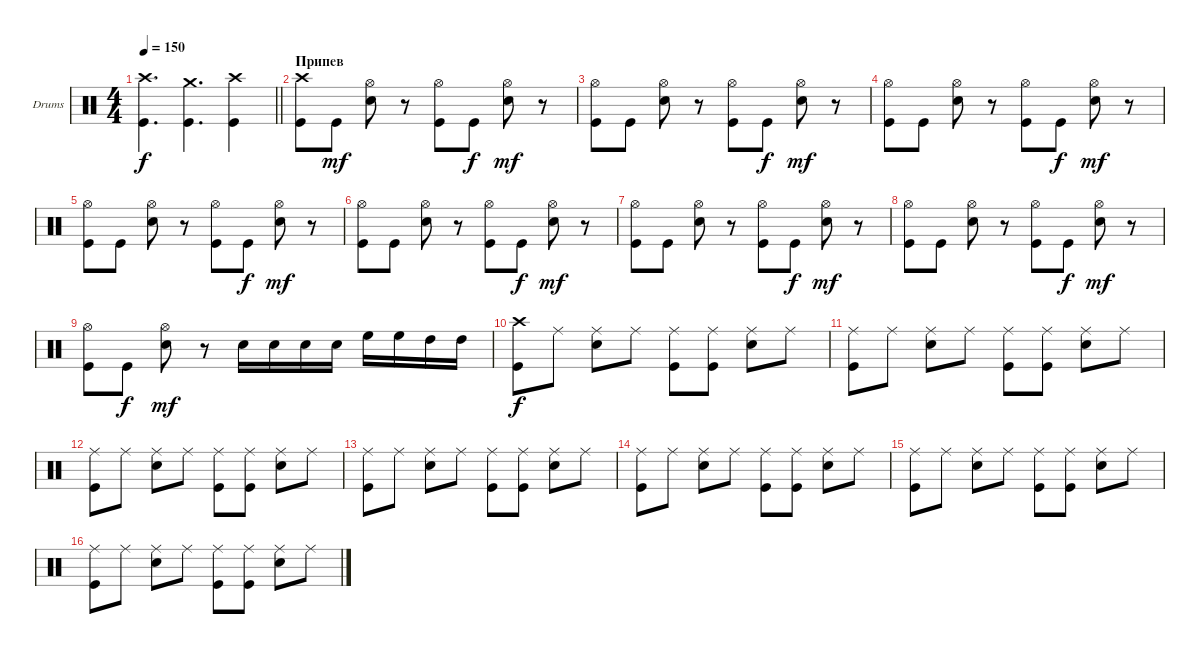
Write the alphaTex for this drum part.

\bracketExtendMode groupsimilarinstruments
\firstSystemTrackNameOrientation horizontal
\otherSystemsTrackNameOrientation horizontal
\track ("Drumkit" "Drums") {instrument percussion}
\staff {score}
\articulation defaults
\ts (4 4)
\tempo 150
\clef neutral
\barLineRight lightlight
\ks c
("Crash high (hit)" "Kick (hit)").4{d dy f} ("Crash medium (hit)" "Kick (hit)").4{d} ("Crash high (hit)" "Kick (hit)").4 |
\section ("" "Припев")
("Crash high (hit)" "Kick (hit)").8 "Kick (hit)".8{dy mf} ("Hi-Hat (open)" "Snare (hit) 2").8 r.8 ("Hi-Hat (open)" "Kick (hit)").8 "Kick (hit)".8{dy f} ("Hi-Hat (open)" "Snare (hit) 2").8{dy mf} r.8 |
("Hi-Hat (open)" "Kick (hit)").8 "Kick (hit)".8 ("Hi-Hat (open)" "Snare (hit) 2").8 r.8 ("Hi-Hat (open)" "Kick (hit)").8 "Kick (hit)".8{dy f} ("Hi-Hat (open)" "Snare (hit) 2").8{dy mf} r.8 |
("Hi-Hat (open)" "Kick (hit)").8 "Kick (hit)".8 ("Hi-Hat (open)" "Snare (hit) 2").8 r.8 ("Hi-Hat (open)" "Kick (hit)").8 "Kick (hit)".8{dy f} ("Hi-Hat (open)" "Snare (hit) 2").8{dy mf} r.8 |
("Hi-Hat (open)" "Kick (hit)").8 "Kick (hit)".8 ("Hi-Hat (open)" "Snare (hit) 2").8 r.8 ("Hi-Hat (open)" "Kick (hit)").8 "Kick (hit)".8{dy f} ("Hi-Hat (open)" "Snare (hit) 2").8{dy mf} r.8 |
("Hi-Hat (open)" "Kick (hit)").8 "Kick (hit)".8 ("Hi-Hat (open)" "Snare (hit) 2").8 r.8 ("Hi-Hat (open)" "Kick (hit)").8 "Kick (hit)".8{dy f} ("Hi-Hat (open)" "Snare (hit) 2").8{dy mf} r.8 |
("Hi-Hat (open)" "Kick (hit)").8 "Kick (hit)".8 ("Hi-Hat (open)" "Snare (hit) 2").8 r.8 ("Hi-Hat (open)" "Kick (hit)").8 "Kick (hit)".8{dy f} ("Hi-Hat (open)" "Snare (hit) 2").8{dy mf} r.8 |
("Hi-Hat (open)" "Kick (hit)").8 "Kick (hit)".8 ("Hi-Hat (open)" "Snare (hit) 2").8 r.8 ("Hi-Hat (open)" "Kick (hit)").8 "Kick (hit)".8{dy f} ("Hi-Hat (open)" "Snare (hit) 2").8{dy mf} r.8 |
("Hi-Hat (open)" "Kick (hit)").8 "Kick (hit)".8{dy f} ("Hi-Hat (open)" "Snare (hit) 2").8{dy mf} r.8 "Snare (hit) 2".16 "Snare (hit) 2".16 "Snare (hit) 2".16 "Snare (hit) 2".16 "High Floor Tom (hit)".16 "High Floor Tom (hit)".16 "High Tom (hit)".16 "High Tom (hit)".16 |
("Crash high (hit)" "Kick (hit)").8{dy f} "Ride (middle)".8 ("Ride (middle)" "Snare (hit) 2").8 "Ride (middle)".8 ("Ride (middle)" "Kick (hit)").8 ("Ride (middle)" "Kick (hit)").8 ("Ride (middle)" "Snare (hit) 2").8 "Ride (middle)".8 |
("Ride (middle)" "Kick (hit)").8 "Ride (middle)".8 ("Ride (middle)" "Snare (hit) 2").8 "Ride (middle)".8 ("Ride (middle)" "Kick (hit)").8 ("Ride (middle)" "Kick (hit)").8 ("Ride (middle)" "Snare (hit) 2").8 "Ride (middle)".8 |
("Ride (middle)" "Kick (hit)").8 "Ride (middle)".8 ("Ride (middle)" "Snare (hit) 2").8 "Ride (middle)".8 ("Ride (middle)" "Kick (hit)").8 ("Ride (middle)" "Kick (hit)").8 ("Ride (middle)" "Snare (hit) 2").8 "Ride (middle)".8 |
("Ride (middle)" "Kick (hit)").8 "Ride (middle)".8 ("Ride (middle)" "Snare (hit) 2").8 "Ride (middle)".8 ("Ride (middle)" "Kick (hit)").8 ("Ride (middle)" "Kick (hit)").8 ("Ride (middle)" "Snare (hit) 2").8 "Ride (middle)".8 |
("Ride (middle)" "Kick (hit)").8 "Ride (middle)".8 ("Ride (middle)" "Snare (hit) 2").8 "Ride (middle)".8 ("Ride (middle)" "Kick (hit)").8 ("Ride (middle)" "Kick (hit)").8 ("Ride (middle)" "Snare (hit) 2").8 "Ride (middle)".8 |
("Ride (middle)" "Kick (hit)").8 "Ride (middle)".8 ("Ride (middle)" "Snare (hit) 2").8 "Ride (middle)".8 ("Ride (middle)" "Kick (hit)").8 ("Ride (middle)" "Kick (hit)").8 ("Ride (middle)" "Snare (hit) 2").8 "Ride (middle)".8 |
("Ride (middle)" "Kick (hit)").8 "Ride (middle)".8 ("Ride (middle)" "Snare (hit) 2").8 "Ride (middle)".8 ("Ride (middle)" "Kick (hit)").8 ("Ride (middle)" "Kick (hit)").8 ("Ride (middle)" "Snare (hit) 2").8 "Ride (middle)".8
